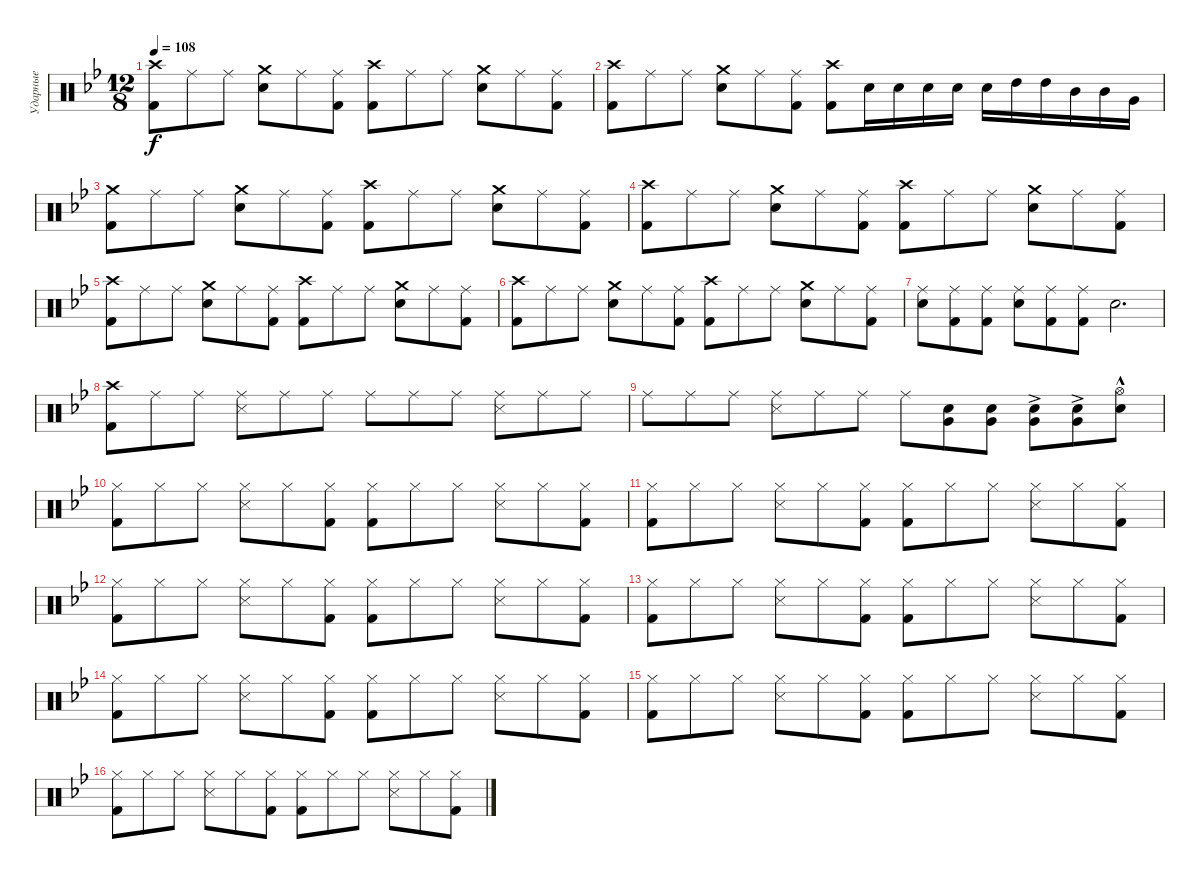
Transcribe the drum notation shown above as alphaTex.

\track ("Ударные" "Ударные") {instrument percussion}
\staff {score}
\articulation defaults
\ts (12 8)
\tempo 108
\clef neutral
\ks gminor
("Crash high (hit)" "Kick (hit) 2").8{dy f} "Ride (middle)".8 "Ride (middle)".8 ("Crash medium (hit)" "Electric Snare (hit)").8 "Ride (middle)".8 ("Ride (middle)" "Kick (hit) 2").8 ("Crash high (hit)" "Kick (hit) 2").8 "Ride (middle)".8 "Ride (middle)".8 ("Crash medium (hit)" "Electric Snare (hit)").8 "Ride (middle)".8 ("Ride (middle)" "Kick (hit) 2").8 |
("Crash high (hit)" "Kick (hit) 2").8 "Ride (middle)".8 "Ride (middle)".8 ("Crash medium (hit)" "Electric Snare (hit)").8 "Ride (middle)".8 ("Ride (middle)" "Kick (hit) 2").8 ("Crash high (hit)" "Kick (hit) 2").8 "Electric Snare (hit)".16 "Electric Snare (hit)".16 "Electric Snare (hit)".16 "Electric Snare (hit)".16 "Electric Snare (hit)".16 "High Tom (hit)".16 "High Tom (hit)".16 "Mid Tom (hit)".16 "Mid Tom (hit)".16 "Very Low Tom (hit)".16 |
("Crash medium (hit)" "Kick (hit) 2").8 "Ride (middle)".8 "Ride (middle)".8 ("Crash medium (hit)" "Electric Snare (hit)").8 "Ride (middle)".8 ("Ride (middle)" "Kick (hit) 2").8 ("Crash high (hit)" "Kick (hit) 2").8 "Ride (middle)".8 "Ride (middle)".8 ("Crash medium (hit)" "Electric Snare (hit)").8 "Ride (middle)".8 ("Ride (middle)" "Kick (hit) 2").8 |
("Crash high (hit)" "Kick (hit) 2").8 "Ride (middle)".8 "Ride (middle)".8 ("Crash medium (hit)" "Electric Snare (hit)").8 "Ride (middle)".8 ("Ride (middle)" "Kick (hit) 2").8 ("Crash high (hit)" "Kick (hit) 2").8 "Ride (middle)".8 "Ride (middle)".8 ("Crash medium (hit)" "Electric Snare (hit)").8 "Ride (middle)".8 ("Ride (middle)" "Kick (hit) 2").8 |
("Crash high (hit)" "Kick (hit) 2").8 "Ride (middle)".8 "Ride (middle)".8 ("Crash medium (hit)" "Electric Snare (hit)").8 "Ride (middle)".8 ("Ride (middle)" "Kick (hit) 2").8 ("Crash high (hit)" "Kick (hit) 2").8 "Ride (middle)".8 "Ride (middle)".8 ("Crash medium (hit)" "Electric Snare (hit)").8 "Ride (middle)".8 ("Ride (middle)" "Kick (hit) 2").8 |
("Crash high (hit)" "Kick (hit) 2").8 "Ride (middle)".8 "Ride (middle)".8 ("Crash medium (hit)" "Electric Snare (hit)").8 "Ride (middle)".8 ("Ride (middle)" "Kick (hit) 2").8 ("Crash high (hit)" "Kick (hit) 2").8 "Ride (middle)".8 "Ride (middle)".8 ("Crash medium (hit)" "Electric Snare (hit)").8 "Ride (middle)".8 ("Ride (middle)" "Kick (hit) 2").8 |
("Ride (middle)" "Electric Snare (hit)").8 ("Ride (middle)" "Kick (hit) 2").8 ("Ride (middle)" "Kick (hit) 2").8 ("Ride (middle)" "Electric Snare (hit)").8 ("Ride (middle)" "Kick (hit) 2").8 ("Ride (middle)" "Kick (hit) 2").8 "Electric Snare (hit)".2{d} |
("Crash high (hit)" "Kick (hit) 2").8 "Ride (middle)".8 "Ride (middle)".8 ("Ride (middle)" "Snare (side stick) 3").8 "Ride (middle)".8 "Ride (middle)".8 "Ride (middle)".8 "Ride (middle)".8 "Ride (middle)".8 ("Ride (middle)" "Snare (side stick) 3").8 "Ride (middle)".8 "Ride (middle)".8 |
"Ride (middle)".8 "Ride (middle)".8 "Ride (middle)".8 ("Ride (middle)" "Snare (side stick) 3").8 "Ride (middle)".8 "Ride (middle)".8 "Ride (middle)".8 ("Electric Snare (hit)" "Very Low Tom (hit)").8 ("Electric Snare (hit)" "Very Low Tom (hit)").8 ("Electric Snare (hit)"{ac} "Very Low Tom (hit)"{ac}).8 ("Electric Snare (hit)"{ac} "Very Low Tom (hit)"{ac}).8 ("Hi-Hat (open)"{hac} "Electric Snare (hit)"{hac}).8 |
("Hi-Hat (closed)" "Kick (hit) 2").8 "Hi-Hat (closed)".8 "Hi-Hat (closed)".8 ("Hi-Hat (closed)" "Snare (side stick) 3").8 "Hi-Hat (closed)".8 ("Hi-Hat (closed)" "Kick (hit) 2").8 ("Hi-Hat (closed)" "Kick (hit) 2").8 "Hi-Hat (closed)".8 "Hi-Hat (closed)".8 ("Hi-Hat (closed)" "Snare (side stick) 3").8 "Hi-Hat (closed)".8 ("Hi-Hat (closed)" "Kick (hit) 2").8 |
("Hi-Hat (closed)" "Kick (hit) 2").8 "Hi-Hat (closed)".8 "Hi-Hat (closed)".8 ("Hi-Hat (closed)" "Snare (side stick) 3").8 "Hi-Hat (closed)".8 ("Hi-Hat (closed)" "Kick (hit) 2").8 ("Hi-Hat (closed)" "Kick (hit) 2").8 "Hi-Hat (closed)".8 "Hi-Hat (closed)".8 ("Hi-Hat (closed)" "Snare (side stick) 3").8 "Hi-Hat (closed)".8 ("Hi-Hat (closed)" "Kick (hit) 2").8 |
("Hi-Hat (closed)" "Kick (hit) 2").8 "Hi-Hat (closed)".8 "Hi-Hat (closed)".8 ("Hi-Hat (closed)" "Snare (side stick) 3").8 "Hi-Hat (closed)".8 ("Hi-Hat (closed)" "Kick (hit) 2").8 ("Hi-Hat (closed)" "Kick (hit) 2").8 "Hi-Hat (closed)".8 "Hi-Hat (closed)".8 ("Hi-Hat (closed)" "Snare (side stick) 3").8 "Hi-Hat (closed)".8 ("Hi-Hat (closed)" "Kick (hit) 2").8 |
("Hi-Hat (closed)" "Kick (hit) 2").8 "Hi-Hat (closed)".8 "Hi-Hat (closed)".8 ("Hi-Hat (closed)" "Snare (side stick) 3").8 "Hi-Hat (closed)".8 ("Hi-Hat (closed)" "Kick (hit) 2").8 ("Hi-Hat (closed)" "Kick (hit) 2").8 "Hi-Hat (closed)".8 "Hi-Hat (closed)".8 ("Hi-Hat (closed)" "Snare (side stick) 3").8 "Hi-Hat (closed)".8 ("Hi-Hat (closed)" "Kick (hit) 2").8 |
("Hi-Hat (closed)" "Kick (hit) 2").8 "Hi-Hat (closed)".8 "Hi-Hat (closed)".8 ("Hi-Hat (closed)" "Snare (side stick) 3").8 "Hi-Hat (closed)".8 ("Hi-Hat (closed)" "Kick (hit) 2").8 ("Hi-Hat (closed)" "Kick (hit) 2").8 "Hi-Hat (closed)".8 "Hi-Hat (closed)".8 ("Hi-Hat (closed)" "Snare (side stick) 3").8 "Hi-Hat (closed)".8 ("Hi-Hat (closed)" "Kick (hit) 2").8 |
("Hi-Hat (closed)" "Kick (hit) 2").8 "Hi-Hat (closed)".8 "Hi-Hat (closed)".8 ("Hi-Hat (closed)" "Snare (side stick) 3").8 "Hi-Hat (closed)".8 ("Hi-Hat (closed)" "Kick (hit) 2").8 ("Hi-Hat (closed)" "Kick (hit) 2").8 "Hi-Hat (closed)".8 "Hi-Hat (closed)".8 ("Hi-Hat (closed)" "Snare (side stick) 3").8 "Hi-Hat (closed)".8 ("Hi-Hat (closed)" "Kick (hit) 2").8 |
("Hi-Hat (closed)" "Kick (hit) 2").8 "Hi-Hat (closed)".8 "Hi-Hat (closed)".8 ("Hi-Hat (closed)" "Snare (side stick) 3").8 "Hi-Hat (closed)".8 ("Hi-Hat (closed)" "Kick (hit) 2").8 ("Hi-Hat (closed)" "Kick (hit) 2").8 "Hi-Hat (closed)".8 "Hi-Hat (closed)".8 ("Hi-Hat (closed)" "Snare (side stick) 3").8 "Hi-Hat (closed)".8 ("Hi-Hat (closed)" "Kick (hit) 2").8
